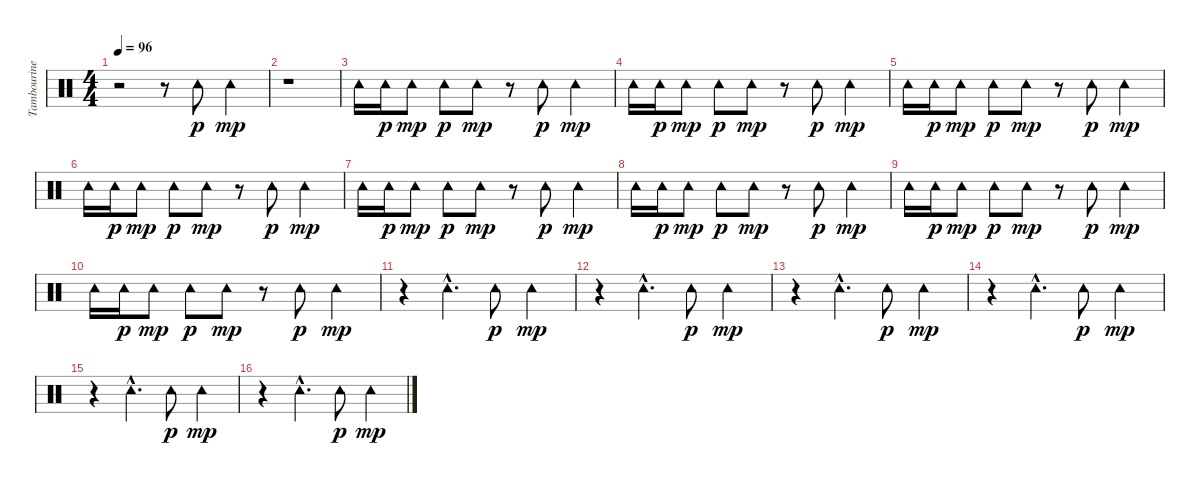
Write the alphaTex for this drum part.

\track ("Tambourine" "Tambourine") {instrument percussion}
\staff {score}
\articulation defaults
\ts (4 4)
\tempo 96
\clef neutral
\ks c
r.2{dy mp} r.8 "Tambourine (hit)".8{dy p} "Tambourine (hit)".4{dy mp} |
r.1 |
"Tambourine (hit)".16 "Tambourine (hit)".16{dy p} "Tambourine (hit)".8{dy mp} "Tambourine (hit)".8{dy p} "Tambourine (hit)".8{dy mp} r.8 "Tambourine (hit)".8{dy p} "Tambourine (hit)".4{dy mp} |
"Tambourine (hit)".16 "Tambourine (hit)".16{dy p} "Tambourine (hit)".8{dy mp} "Tambourine (hit)".8{dy p} "Tambourine (hit)".8{dy mp} r.8 "Tambourine (hit)".8{dy p} "Tambourine (hit)".4{dy mp} |
"Tambourine (hit)".16 "Tambourine (hit)".16{dy p} "Tambourine (hit)".8{dy mp} "Tambourine (hit)".8{dy p} "Tambourine (hit)".8{dy mp} r.8 "Tambourine (hit)".8{dy p} "Tambourine (hit)".4{dy mp} |
"Tambourine (hit)".16 "Tambourine (hit)".16{dy p} "Tambourine (hit)".8{dy mp} "Tambourine (hit)".8{dy p} "Tambourine (hit)".8{dy mp} r.8 "Tambourine (hit)".8{dy p} "Tambourine (hit)".4{dy mp} |
"Tambourine (hit)".16 "Tambourine (hit)".16{dy p} "Tambourine (hit)".8{dy mp} "Tambourine (hit)".8{dy p} "Tambourine (hit)".8{dy mp} r.8 "Tambourine (hit)".8{dy p} "Tambourine (hit)".4{dy mp} |
"Tambourine (hit)".16 "Tambourine (hit)".16{dy p} "Tambourine (hit)".8{dy mp} "Tambourine (hit)".8{dy p} "Tambourine (hit)".8{dy mp} r.8 "Tambourine (hit)".8{dy p} "Tambourine (hit)".4{dy mp} |
"Tambourine (hit)".16 "Tambourine (hit)".16{dy p} "Tambourine (hit)".8{dy mp} "Tambourine (hit)".8{dy p} "Tambourine (hit)".8{dy mp} r.8 "Tambourine (hit)".8{dy p} "Tambourine (hit)".4{dy mp} |
"Tambourine (hit)".16 "Tambourine (hit)".16{dy p} "Tambourine (hit)".8{dy mp} "Tambourine (hit)".8{dy p} "Tambourine (hit)".8{dy mp} r.8 "Tambourine (hit)".8{dy p} "Tambourine (hit)".4{dy mp} |
r.4 "Tambourine (hit)"{hac}.4{d} "Tambourine (hit)".8{dy p} "Tambourine (hit)".4{dy mp} |
r.4 "Tambourine (hit)"{hac}.4{d} "Tambourine (hit)".8{dy p} "Tambourine (hit)".4{dy mp} |
r.4 "Tambourine (hit)"{hac}.4{d} "Tambourine (hit)".8{dy p} "Tambourine (hit)".4{dy mp} |
r.4 "Tambourine (hit)"{hac}.4{d} "Tambourine (hit)".8{dy p} "Tambourine (hit)".4{dy mp} |
r.4 "Tambourine (hit)"{hac}.4{d} "Tambourine (hit)".8{dy p} "Tambourine (hit)".4{dy mp} |
r.4 "Tambourine (hit)"{hac}.4{d} "Tambourine (hit)".8{dy p} "Tambourine (hit)".4{dy mp}
